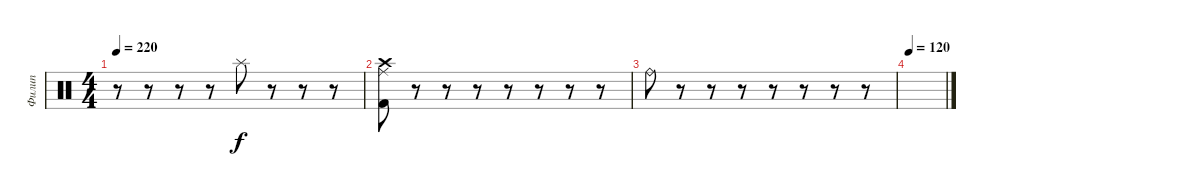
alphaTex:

\track ("Филип" "Филип") {instrument percussion}
\staff {score}
\articulation defaults
\ts (4 4)
\tempo 220
\clef neutral
\ks c
r.8{dy f} r.8 r.8 r.8 "Splash (hit)".8 r.8 r.8 r.8 |
("Crash high (hit)" "Ride (middle)" "Kick (hit) 2").8 r.8 r.8 r.8 r.8 r.8 r.8 r.8 |
"Ride (bell)".8 r.8 r.8 r.8 r.8 r.8 r.8 r.8{volume 9} |
\tempo 120
